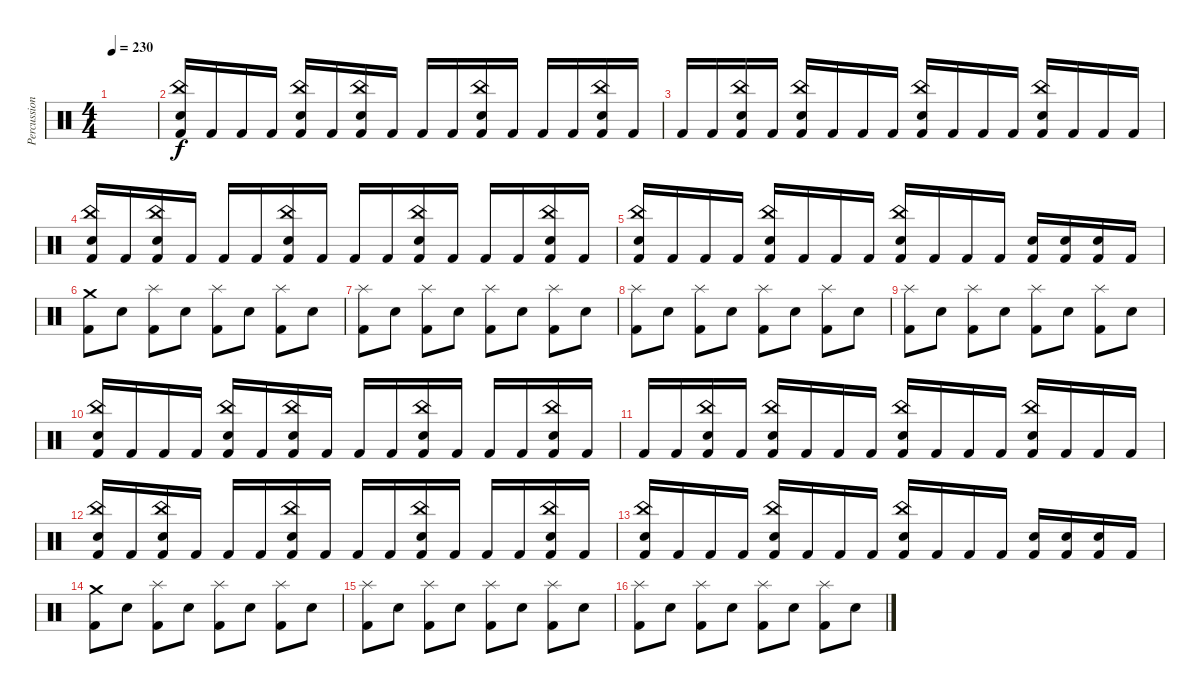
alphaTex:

\track ("Percussion" "Percussion") {instrument percussion}
\staff {score}
\articulation defaults
\ts (4 4)
\tempo 230
\clef neutral
\ks c
|
("Snare (hit) 2" "China (hit)" "Kick (hit) 2").16 "Kick (hit) 2".16 "Kick (hit) 2".16 "Kick (hit) 2".16 ("Snare (hit) 2" "China (hit)" "Kick (hit) 2").16 "Kick (hit) 2".16 ("Snare (hit) 2" "China (hit)" "Kick (hit) 2").16 "Kick (hit) 2".16 "Kick (hit) 2".16 "Kick (hit) 2".16 ("Snare (hit) 2" "China (hit)" "Kick (hit) 2").16 "Kick (hit) 2".16 "Kick (hit) 2".16 "Kick (hit) 2".16 ("Snare (hit) 2" "China (hit)" "Kick (hit) 2").16 "Kick (hit) 2".16 |
"Kick (hit) 2".16 "Kick (hit) 2".16 ("China (hit)" "Snare (hit) 2" "Kick (hit) 2").16 "Kick (hit) 2".16 ("China (hit)" "Snare (hit) 2" "Kick (hit) 2").16 "Kick (hit) 2".16 "Kick (hit) 2".16 "Kick (hit) 2".16 ("Snare (hit) 2" "China (hit)" "Kick (hit) 2").16 "Kick (hit) 2".16 "Kick (hit) 2".16 "Kick (hit) 2".16 ("Snare (hit) 2" "China (hit)" "Kick (hit) 2").16 "Kick (hit) 2".16 "Kick (hit) 2".16 "Kick (hit) 2".16 |
("Snare (hit) 2" "China (hit)" "Kick (hit) 2").16 "Kick (hit) 2".16 ("Snare (hit) 2" "China (hit)" "Kick (hit) 2").16 "Kick (hit) 2".16 "Kick (hit) 2".16 "Kick (hit) 2".16 ("Snare (hit) 2" "China (hit)" "Kick (hit) 2").16 "Kick (hit) 2".16 "Kick (hit) 2".16 "Kick (hit) 2".16 ("Snare (hit) 2" "China (hit)" "Kick (hit) 2").16 "Kick (hit) 2".16 "Kick (hit) 2".16 "Kick (hit) 2".16 ("Snare (hit) 2" "China (hit)" "Kick (hit) 2").16 "Kick (hit) 2".16 |
("Snare (hit) 2" "China (hit)" "Kick (hit) 2").16 "Kick (hit) 2".16 "Kick (hit) 2".16 "Kick (hit) 2".16 ("Snare (hit) 2" "China (hit)" "Kick (hit) 2").16 "Kick (hit) 2".16 "Kick (hit) 2".16 "Kick (hit) 2".16 ("Snare (hit) 2" "China (hit)" "Kick (hit) 2").16 "Kick (hit) 2".16 "Kick (hit) 2".16 "Kick (hit) 2".16 ("Snare (hit) 2" "Kick (hit) 2").16 ("Snare (hit) 2" "Kick (hit) 2").16 ("Snare (hit) 2" "Kick (hit) 2").16 "Kick (hit) 2".16 |
("Crash medium (hit)" "Kick (hit) 2").8 "Snare (hit) 2".8 ("Splash (hit)" "Kick (hit) 2").8 "Snare (hit) 2".8 ("Splash (hit)" "Kick (hit) 2").8 "Snare (hit) 2".8 ("Splash (hit)" "Kick (hit) 2").8 "Snare (hit) 2".8 |
("Splash (hit)" "Kick (hit) 2").8 "Snare (hit) 2".8 ("Splash (hit)" "Kick (hit) 2").8 "Snare (hit) 2".8 ("Splash (hit)" "Kick (hit) 2").8 "Snare (hit) 2".8 ("Splash (hit)" "Kick (hit) 2").8 "Snare (hit) 2".8 |
("Splash (hit)" "Kick (hit) 2").8 "Snare (hit) 2".8 ("Splash (hit)" "Kick (hit) 2").8 "Snare (hit) 2".8 ("Splash (hit)" "Kick (hit) 2").8 "Snare (hit) 2".8 ("Splash (hit)" "Kick (hit) 2").8 "Snare (hit) 2".8 |
("Splash (hit)" "Kick (hit) 2").8 "Snare (hit) 2".8 ("Splash (hit)" "Kick (hit) 2").8 "Snare (hit) 2".8 ("Splash (hit)" "Kick (hit) 2").8 "Snare (hit) 2".8 ("Splash (hit)" "Kick (hit) 2").8 "Snare (hit) 2".8 |
("Snare (hit) 2" "China (hit)" "Kick (hit) 2").16 "Kick (hit) 2".16 "Kick (hit) 2".16 "Kick (hit) 2".16 ("Snare (hit) 2" "China (hit)" "Kick (hit) 2").16 "Kick (hit) 2".16 ("Snare (hit) 2" "China (hit)" "Kick (hit) 2").16 "Kick (hit) 2".16 "Kick (hit) 2".16 "Kick (hit) 2".16 ("Snare (hit) 2" "China (hit)" "Kick (hit) 2").16 "Kick (hit) 2".16 "Kick (hit) 2".16 "Kick (hit) 2".16 ("Snare (hit) 2" "China (hit)" "Kick (hit) 2").16 "Kick (hit) 2".16 |
"Kick (hit) 2".16 "Kick (hit) 2".16 ("China (hit)" "Snare (hit) 2" "Kick (hit) 2").16 "Kick (hit) 2".16 ("China (hit)" "Snare (hit) 2" "Kick (hit) 2").16 "Kick (hit) 2".16 "Kick (hit) 2".16 "Kick (hit) 2".16 ("Snare (hit) 2" "China (hit)" "Kick (hit) 2").16 "Kick (hit) 2".16 "Kick (hit) 2".16 "Kick (hit) 2".16 ("Snare (hit) 2" "China (hit)" "Kick (hit) 2").16 "Kick (hit) 2".16 "Kick (hit) 2".16 "Kick (hit) 2".16 |
("Snare (hit) 2" "China (hit)" "Kick (hit) 2").16 "Kick (hit) 2".16 ("Snare (hit) 2" "China (hit)" "Kick (hit) 2").16 "Kick (hit) 2".16 "Kick (hit) 2".16 "Kick (hit) 2".16 ("Snare (hit) 2" "China (hit)" "Kick (hit) 2").16 "Kick (hit) 2".16 "Kick (hit) 2".16 "Kick (hit) 2".16 ("Snare (hit) 2" "China (hit)" "Kick (hit) 2").16 "Kick (hit) 2".16 "Kick (hit) 2".16 "Kick (hit) 2".16 ("Snare (hit) 2" "China (hit)" "Kick (hit) 2").16 "Kick (hit) 2".16 |
("Snare (hit) 2" "China (hit)" "Kick (hit) 2").16 "Kick (hit) 2".16 "Kick (hit) 2".16 "Kick (hit) 2".16 ("Snare (hit) 2" "China (hit)" "Kick (hit) 2").16 "Kick (hit) 2".16 "Kick (hit) 2".16 "Kick (hit) 2".16 ("Snare (hit) 2" "China (hit)" "Kick (hit) 2").16 "Kick (hit) 2".16 "Kick (hit) 2".16 "Kick (hit) 2".16 ("Snare (hit) 2" "Kick (hit) 2").16 ("Snare (hit) 2" "Kick (hit) 2").16 ("Snare (hit) 2" "Kick (hit) 2").16 "Kick (hit) 2".16 |
("Crash medium (hit)" "Kick (hit) 2").8 "Snare (hit) 2".8 ("Splash (hit)" "Kick (hit) 2").8 "Snare (hit) 2".8 ("Splash (hit)" "Kick (hit) 2").8 "Snare (hit) 2".8 ("Splash (hit)" "Kick (hit) 2").8 "Snare (hit) 2".8 |
("Splash (hit)" "Kick (hit) 2").8 "Snare (hit) 2".8 ("Splash (hit)" "Kick (hit) 2").8 "Snare (hit) 2".8 ("Splash (hit)" "Kick (hit) 2").8 "Snare (hit) 2".8 ("Splash (hit)" "Kick (hit) 2").8 "Snare (hit) 2".8 |
("Splash (hit)" "Kick (hit) 2").8 "Snare (hit) 2".8 ("Splash (hit)" "Kick (hit) 2").8 "Snare (hit) 2".8 ("Splash (hit)" "Kick (hit) 2").8 "Snare (hit) 2".8 ("Splash (hit)" "Kick (hit) 2").8 "Snare (hit) 2".8
